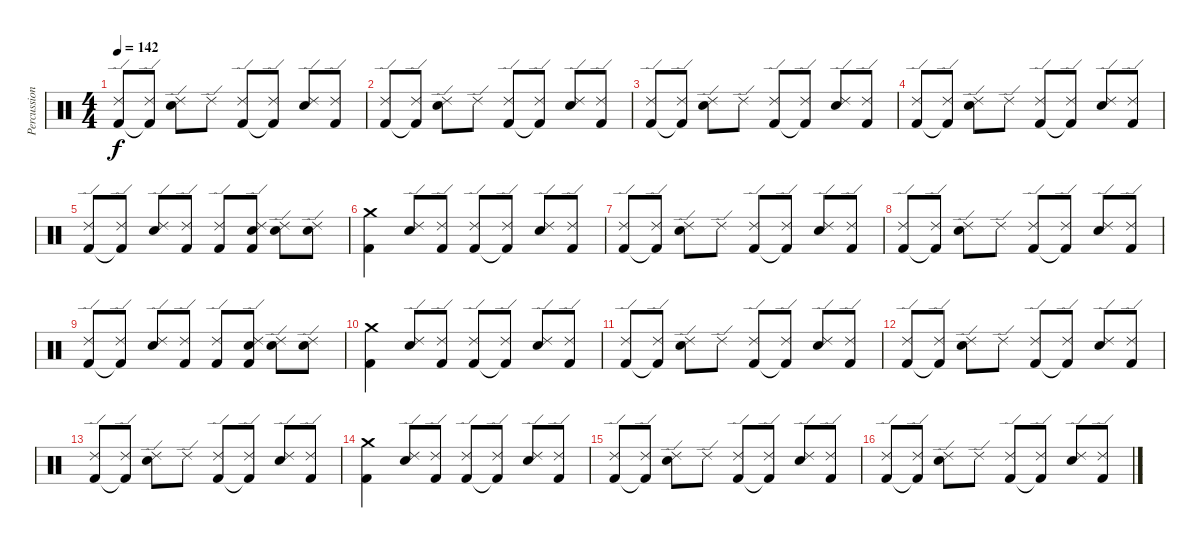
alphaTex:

\track ("Percussion" "Percussion") {instrument percussion}
\staff {score}
\articulation defaults
\ts (4 4)
\tempo 142
\clef neutral
\ks c
("Ride (edge) 2" "Kick (hit) 2").8{dy f} ("Ride (edge) 2" "Kick (hit) 2"{t}).8 ("Ride (edge) 2" "Snare (hit) 2").8 "Ride (edge) 2".8 ("Ride (edge) 2" "Kick (hit) 2").8 ("Ride (edge) 2" "Kick (hit) 2"{t}).8 ("Ride (edge) 2" "Snare (hit) 2").8 ("Ride (edge) 2" "Kick (hit) 2").8 |
("Ride (edge) 2" "Kick (hit) 2").8 ("Ride (edge) 2" "Kick (hit) 2"{t}).8 ("Ride (edge) 2" "Snare (hit) 2").8 "Ride (edge) 2".8 ("Ride (edge) 2" "Kick (hit) 2").8 ("Ride (edge) 2" "Kick (hit) 2"{t}).8 ("Ride (edge) 2" "Snare (hit) 2").8 ("Ride (edge) 2" "Kick (hit) 2").8 |
("Ride (edge) 2" "Kick (hit) 2").8 ("Ride (edge) 2" "Kick (hit) 2"{t}).8 ("Ride (edge) 2" "Snare (hit) 2").8 "Ride (edge) 2".8 ("Ride (edge) 2" "Kick (hit) 2").8 ("Ride (edge) 2" "Kick (hit) 2"{t}).8 ("Ride (edge) 2" "Snare (hit) 2").8 ("Ride (edge) 2" "Kick (hit) 2").8 |
("Ride (edge) 2" "Kick (hit) 2").8 ("Ride (edge) 2" "Kick (hit) 2"{t}).8 ("Ride (edge) 2" "Snare (hit) 2").8 "Ride (edge) 2".8 ("Ride (edge) 2" "Kick (hit) 2").8 ("Ride (edge) 2" "Kick (hit) 2"{t}).8 ("Ride (edge) 2" "Snare (hit) 2").8 ("Ride (edge) 2" "Kick (hit) 2").8 |
("Ride (edge) 2" "Kick (hit) 2").8 ("Ride (edge) 2" "Kick (hit) 2"{t}).8 ("Ride (edge) 2" "Snare (hit) 2").8 ("Ride (edge) 2" "Kick (hit) 2").8 ("Ride (edge) 2" "Kick (hit) 2").8 ("Ride (edge) 2" "Snare (hit) 2" "Kick (hit) 2").8 ("Ride (edge) 2" "Snare (hit) 2").8 ("Ride (edge) 2" "Snare (hit) 2").8 |
("Crash medium (hit)" "Kick (hit) 2").4 ("Ride (edge) 2" "Snare (hit) 2").8 ("Ride (edge) 2" "Kick (hit) 2").8 ("Ride (edge) 2" "Kick (hit) 2").8 ("Ride (edge) 2" "Kick (hit) 2"{t}).8 ("Ride (edge) 2" "Snare (hit) 2").8 ("Ride (edge) 2" "Kick (hit) 2").8 |
("Ride (edge) 2" "Kick (hit) 2").8 ("Ride (edge) 2" "Kick (hit) 2"{t}).8 ("Ride (edge) 2" "Snare (hit) 2").8 "Ride (edge) 2".8 ("Ride (edge) 2" "Kick (hit) 2").8 ("Ride (edge) 2" "Kick (hit) 2"{t}).8 ("Ride (edge) 2" "Snare (hit) 2").8 ("Ride (edge) 2" "Kick (hit) 2").8 |
("Ride (edge) 2" "Kick (hit) 2").8 ("Ride (edge) 2" "Kick (hit) 2"{t}).8 ("Ride (edge) 2" "Snare (hit) 2").8 "Ride (edge) 2".8 ("Ride (edge) 2" "Kick (hit) 2").8 ("Ride (edge) 2" "Kick (hit) 2"{t}).8 ("Ride (edge) 2" "Snare (hit) 2").8 ("Ride (edge) 2" "Kick (hit) 2").8 |
("Ride (edge) 2" "Kick (hit) 2").8 ("Ride (edge) 2" "Kick (hit) 2"{t}).8 ("Ride (edge) 2" "Snare (hit) 2").8 ("Ride (edge) 2" "Kick (hit) 2").8 ("Ride (edge) 2" "Kick (hit) 2").8 ("Ride (edge) 2" "Snare (hit) 2" "Kick (hit) 2").8 ("Ride (edge) 2" "Snare (hit) 2").8 ("Ride (edge) 2" "Snare (hit) 2").8 |
("Crash medium (hit)" "Kick (hit) 2").4 ("Ride (edge) 2" "Snare (hit) 2").8 ("Ride (edge) 2" "Kick (hit) 2").8 ("Ride (edge) 2" "Kick (hit) 2").8 ("Ride (edge) 2" "Kick (hit) 2"{t}).8 ("Ride (edge) 2" "Snare (hit) 2").8 ("Ride (edge) 2" "Kick (hit) 2").8 |
("Ride (edge) 2" "Kick (hit) 2").8 ("Ride (edge) 2" "Kick (hit) 2"{t}).8 ("Ride (edge) 2" "Snare (hit) 2").8 "Ride (edge) 2".8 ("Ride (edge) 2" "Kick (hit) 2").8 ("Ride (edge) 2" "Kick (hit) 2"{t}).8 ("Ride (edge) 2" "Snare (hit) 2").8 ("Ride (edge) 2" "Kick (hit) 2").8 |
("Ride (edge) 2" "Kick (hit) 2").8 ("Ride (edge) 2" "Kick (hit) 2"{t}).8 ("Ride (edge) 2" "Snare (hit) 2").8 "Ride (edge) 2".8 ("Ride (edge) 2" "Kick (hit) 2").8 ("Ride (edge) 2" "Kick (hit) 2"{t}).8 ("Ride (edge) 2" "Snare (hit) 2").8 ("Ride (edge) 2" "Kick (hit) 2").8 |
("Ride (edge) 2" "Kick (hit) 2").8 ("Ride (edge) 2" "Kick (hit) 2"{t}).8 ("Ride (edge) 2" "Snare (hit) 2").8 "Ride (edge) 2".8 ("Ride (edge) 2" "Kick (hit) 2").8 ("Ride (edge) 2" "Kick (hit) 2"{t}).8 ("Ride (edge) 2" "Snare (hit) 2").8 ("Ride (edge) 2" "Kick (hit) 2").8 |
("Crash medium (hit)" "Kick (hit) 2").4 ("Ride (edge) 2" "Snare (hit) 2").8 ("Ride (edge) 2" "Kick (hit) 2").8 ("Ride (edge) 2" "Kick (hit) 2").8 ("Ride (edge) 2" "Kick (hit) 2"{t}).8 ("Ride (edge) 2" "Snare (hit) 2").8 ("Ride (edge) 2" "Kick (hit) 2").8 |
("Ride (edge) 2" "Kick (hit) 2").8 ("Ride (edge) 2" "Kick (hit) 2"{t}).8 ("Ride (edge) 2" "Snare (hit) 2").8 "Ride (edge) 2".8 ("Ride (edge) 2" "Kick (hit) 2").8 ("Ride (edge) 2" "Kick (hit) 2"{t}).8 ("Ride (edge) 2" "Snare (hit) 2").8 ("Ride (edge) 2" "Kick (hit) 2").8 |
("Ride (edge) 2" "Kick (hit) 2").8 ("Ride (edge) 2" "Kick (hit) 2"{t}).8 ("Ride (edge) 2" "Snare (hit) 2").8 "Ride (edge) 2".8 ("Ride (edge) 2" "Kick (hit) 2").8 ("Ride (edge) 2" "Kick (hit) 2"{t}).8 ("Ride (edge) 2" "Snare (hit) 2").8 ("Ride (edge) 2" "Kick (hit) 2").8
